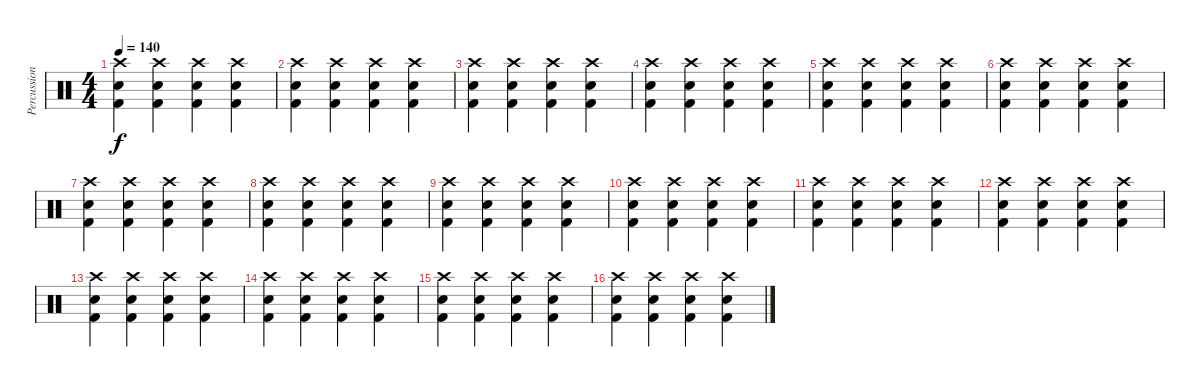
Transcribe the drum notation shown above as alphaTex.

\track ("Percussion" "Percussion") {instrument percussion}
\staff {score}
\articulation defaults
\ts (4 4)
\tempo 140
\clef neutral
\ks c
("Crash high (hit)" "Electric Snare (hit)" "Kick (hit) 2").4{dy f} ("Crash high (hit)" "Electric Snare (hit)" "Kick (hit) 2").4 ("Crash high (hit)" "Electric Snare (hit)" "Kick (hit) 2").4 ("Crash high (hit)" "Electric Snare (hit)" "Kick (hit) 2").4 |
("Crash high (hit)" "Electric Snare (hit)" "Kick (hit) 2").4 ("Crash high (hit)" "Electric Snare (hit)" "Kick (hit) 2").4 ("Crash high (hit)" "Electric Snare (hit)" "Kick (hit) 2").4 ("Crash high (hit)" "Electric Snare (hit)" "Kick (hit) 2").4 |
("Crash high (hit)" "Electric Snare (hit)" "Kick (hit) 2").4 ("Crash high (hit)" "Electric Snare (hit)" "Kick (hit) 2").4 ("Crash high (hit)" "Electric Snare (hit)" "Kick (hit) 2").4 ("Crash high (hit)" "Electric Snare (hit)" "Kick (hit) 2").4 |
("Crash high (hit)" "Electric Snare (hit)" "Kick (hit) 2").4 ("Crash high (hit)" "Electric Snare (hit)" "Kick (hit) 2").4 ("Crash high (hit)" "Electric Snare (hit)" "Kick (hit) 2").4 ("Crash high (hit)" "Electric Snare (hit)" "Kick (hit) 2").4 |
("Crash high (hit)" "Electric Snare (hit)" "Kick (hit) 2").4 ("Crash high (hit)" "Electric Snare (hit)" "Kick (hit) 2").4 ("Crash high (hit)" "Electric Snare (hit)" "Kick (hit) 2").4 ("Crash high (hit)" "Electric Snare (hit)" "Kick (hit) 2").4 |
("Crash high (hit)" "Electric Snare (hit)" "Kick (hit) 2").4 ("Crash high (hit)" "Electric Snare (hit)" "Kick (hit) 2").4 ("Crash high (hit)" "Electric Snare (hit)" "Kick (hit) 2").4 ("Crash high (hit)" "Electric Snare (hit)" "Kick (hit) 2").4 |
("Crash high (hit)" "Electric Snare (hit)" "Kick (hit) 2").4 ("Crash high (hit)" "Electric Snare (hit)" "Kick (hit) 2").4 ("Crash high (hit)" "Electric Snare (hit)" "Kick (hit) 2").4 ("Crash high (hit)" "Electric Snare (hit)" "Kick (hit) 2").4 |
("Crash high (hit)" "Electric Snare (hit)" "Kick (hit) 2").4 ("Crash high (hit)" "Electric Snare (hit)" "Kick (hit) 2").4 ("Crash high (hit)" "Electric Snare (hit)" "Kick (hit) 2").4 ("Crash high (hit)" "Electric Snare (hit)" "Kick (hit) 2").4 |
("Crash high (hit)" "Electric Snare (hit)" "Kick (hit) 2").4 ("Crash high (hit)" "Electric Snare (hit)" "Kick (hit) 2").4 ("Crash high (hit)" "Electric Snare (hit)" "Kick (hit) 2").4 ("Crash high (hit)" "Electric Snare (hit)" "Kick (hit) 2").4 |
("Crash high (hit)" "Electric Snare (hit)" "Kick (hit) 2").4 ("Crash high (hit)" "Electric Snare (hit)" "Kick (hit) 2").4 ("Crash high (hit)" "Electric Snare (hit)" "Kick (hit) 2").4 ("Crash high (hit)" "Electric Snare (hit)" "Kick (hit) 2").4 |
("Crash high (hit)" "Electric Snare (hit)" "Kick (hit) 2").4 ("Crash high (hit)" "Electric Snare (hit)" "Kick (hit) 2").4 ("Crash high (hit)" "Electric Snare (hit)" "Kick (hit) 2").4 ("Crash high (hit)" "Electric Snare (hit)" "Kick (hit) 2").4 |
("Crash high (hit)" "Electric Snare (hit)" "Kick (hit) 2").4 ("Crash high (hit)" "Electric Snare (hit)" "Kick (hit) 2").4 ("Crash high (hit)" "Electric Snare (hit)" "Kick (hit) 2").4 ("Crash high (hit)" "Electric Snare (hit)" "Kick (hit) 2").4 |
("Crash high (hit)" "Electric Snare (hit)" "Kick (hit) 2").4 ("Crash high (hit)" "Electric Snare (hit)" "Kick (hit) 2").4 ("Crash high (hit)" "Electric Snare (hit)" "Kick (hit) 2").4 ("Crash high (hit)" "Electric Snare (hit)" "Kick (hit) 2").4 |
("Crash high (hit)" "Electric Snare (hit)" "Kick (hit) 2").4 ("Crash high (hit)" "Electric Snare (hit)" "Kick (hit) 2").4 ("Crash high (hit)" "Electric Snare (hit)" "Kick (hit) 2").4 ("Crash high (hit)" "Electric Snare (hit)" "Kick (hit) 2").4 |
("Crash high (hit)" "Electric Snare (hit)" "Kick (hit) 2").4 ("Crash high (hit)" "Electric Snare (hit)" "Kick (hit) 2").4 ("Crash high (hit)" "Electric Snare (hit)" "Kick (hit) 2").4 ("Crash high (hit)" "Electric Snare (hit)" "Kick (hit) 2").4 |
("Crash high (hit)" "Electric Snare (hit)" "Kick (hit) 2").4 ("Crash high (hit)" "Electric Snare (hit)" "Kick (hit) 2").4 ("Crash high (hit)" "Electric Snare (hit)" "Kick (hit) 2").4 ("Crash high (hit)" "Electric Snare (hit)" "Kick (hit) 2").4
